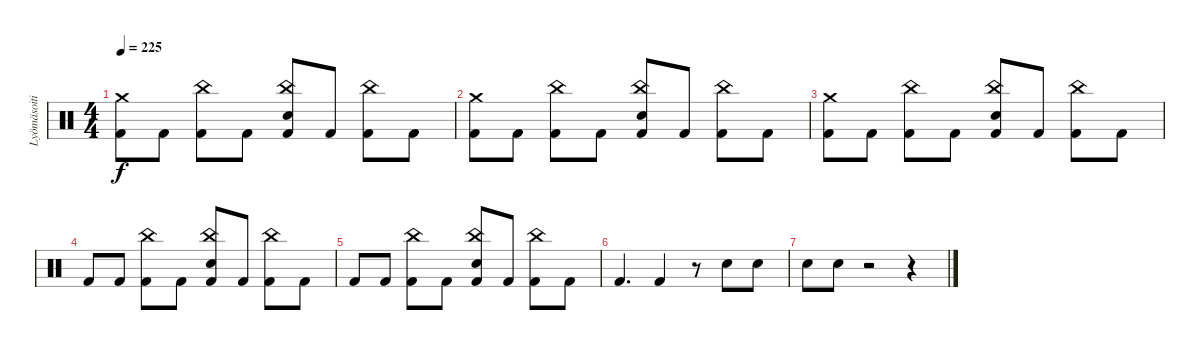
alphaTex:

\track ("Lyömäsoitin" "Lyömäsoiti") {instrument percussion}
\staff {score}
\articulation defaults
\ts (4 4)
\tempo 225
\clef neutral
\ks c
("Crash medium (hit)" "Kick (hit) 2").8{dy f} "Kick (hit) 2".8 ("China (hit)" "Kick (hit) 2").8 "Kick (hit) 2".8 ("China (hit)" "Snare (hit) 2" "Kick (hit) 2").8 "Kick (hit) 2".8 ("China (hit)" "Kick (hit) 2").8 "Kick (hit) 2".8 |
("Crash medium (hit)" "Kick (hit) 2").8 "Kick (hit) 2".8 ("China (hit)" "Kick (hit) 2").8 "Kick (hit) 2".8 ("China (hit)" "Snare (hit) 2" "Kick (hit) 2").8 "Kick (hit) 2".8 ("China (hit)" "Kick (hit) 2").8 "Kick (hit) 2".8 |
("Crash medium (hit)" "Kick (hit) 2").8 "Kick (hit) 2".8 ("China (hit)" "Kick (hit) 2").8 "Kick (hit) 2".8 ("China (hit)" "Snare (hit) 2" "Kick (hit) 2").8 "Kick (hit) 2".8 ("China (hit)" "Kick (hit) 2").8 "Kick (hit) 2".8 |
"Kick (hit) 2".8 "Kick (hit) 2".8 ("China (hit)" "Kick (hit) 2").8 "Kick (hit) 2".8 ("China (hit)" "Snare (hit) 2" "Kick (hit) 2").8 "Kick (hit) 2".8 ("China (hit)" "Kick (hit) 2").8 "Kick (hit) 2".8 |
"Kick (hit) 2".8 "Kick (hit) 2".8 ("China (hit)" "Kick (hit) 2").8 "Kick (hit) 2".8 ("China (hit)" "Snare (hit) 2" "Kick (hit) 2").8 "Kick (hit) 2".8 ("China (hit)" "Kick (hit) 2").8 "Kick (hit) 2".8 |
"Kick (hit) 2".4{d} "Kick (hit) 2".4 r.8 "Snare (hit) 2".8 "Snare (hit) 2".8 |
"Snare (hit) 2".8 "Snare (hit) 2".8 r.2 r.4
